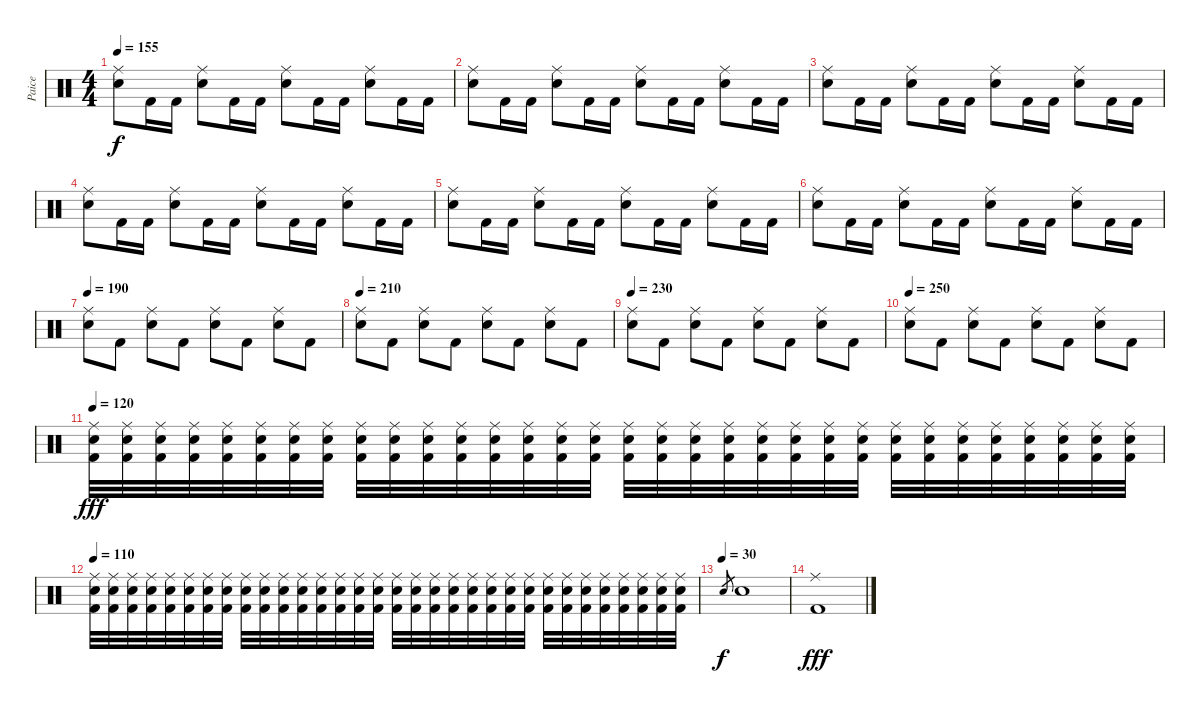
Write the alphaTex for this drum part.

\track ("Paice" "Paice") {instrument percussion}
\staff {score}
\articulation defaults
\ts (4 4)
\tempo 155
\clef neutral
\ks c
("Ride (middle)" "Snare (hit) 2").8{dy f} "Kick (hit) 2".16 "Kick (hit) 2".16 ("Ride (middle)" "Snare (hit) 2").8 "Kick (hit) 2".16 "Kick (hit) 2".16 ("Ride (middle)" "Snare (hit) 2").8 "Kick (hit) 2".16 "Kick (hit) 2".16 ("Ride (middle)" "Snare (hit) 2").8 "Kick (hit) 2".16 "Kick (hit) 2".16 |
("Ride (middle)" "Snare (hit) 2").8 "Kick (hit) 2".16 "Kick (hit) 2".16 ("Ride (middle)" "Snare (hit) 2").8 "Kick (hit) 2".16 "Kick (hit) 2".16 ("Ride (middle)" "Snare (hit) 2").8 "Kick (hit) 2".16 "Kick (hit) 2".16 ("Ride (middle)" "Snare (hit) 2").8 "Kick (hit) 2".16 "Kick (hit) 2".16 |
("Ride (middle)" "Snare (hit) 2").8 "Kick (hit) 2".16 "Kick (hit) 2".16 ("Ride (middle)" "Snare (hit) 2").8 "Kick (hit) 2".16 "Kick (hit) 2".16 ("Ride (middle)" "Snare (hit) 2").8 "Kick (hit) 2".16 "Kick (hit) 2".16 ("Ride (middle)" "Snare (hit) 2").8 "Kick (hit) 2".16 "Kick (hit) 2".16 |
("Ride (middle)" "Snare (hit) 2").8 "Kick (hit) 2".16 "Kick (hit) 2".16 ("Ride (middle)" "Snare (hit) 2").8 "Kick (hit) 2".16 "Kick (hit) 2".16 ("Ride (middle)" "Snare (hit) 2").8 "Kick (hit) 2".16 "Kick (hit) 2".16 ("Ride (middle)" "Snare (hit) 2").8 "Kick (hit) 2".16 "Kick (hit) 2".16 |
("Ride (middle)" "Snare (hit) 2").8 "Kick (hit) 2".16 "Kick (hit) 2".16 ("Ride (middle)" "Snare (hit) 2").8 "Kick (hit) 2".16 "Kick (hit) 2".16 ("Ride (middle)" "Snare (hit) 2").8 "Kick (hit) 2".16 "Kick (hit) 2".16 ("Ride (middle)" "Snare (hit) 2").8 "Kick (hit) 2".16 "Kick (hit) 2".16 |
("Ride (middle)" "Snare (hit) 2").8 "Kick (hit) 2".16 "Kick (hit) 2".16 ("Ride (middle)" "Snare (hit) 2").8 "Kick (hit) 2".16 "Kick (hit) 2".16 ("Ride (middle)" "Snare (hit) 2").8 "Kick (hit) 2".16 "Kick (hit) 2".16 ("Ride (middle)" "Snare (hit) 2").8 "Kick (hit) 2".16 "Kick (hit) 2".16 |
\tempo 190
("Ride (middle)" "Snare (hit) 2").8 "Kick (hit) 2".8 ("Ride (middle)" "Snare (hit) 2").8 "Kick (hit) 2".8 ("Ride (middle)" "Snare (hit) 2").8 "Kick (hit) 2".8 ("Ride (middle)" "Snare (hit) 2").8 "Kick (hit) 2".8 |
\tempo 210
("Ride (middle)" "Snare (hit) 2").8 "Kick (hit) 2".8 ("Ride (middle)" "Snare (hit) 2").8 "Kick (hit) 2".8 ("Ride (middle)" "Snare (hit) 2").8 "Kick (hit) 2".8 ("Ride (middle)" "Snare (hit) 2").8 "Kick (hit) 2".8 |
\tempo 230
("Ride (middle)" "Snare (hit) 2").8 "Kick (hit) 2".8 ("Ride (middle)" "Snare (hit) 2").8 "Kick (hit) 2".8 ("Ride (middle)" "Snare (hit) 2").8 "Kick (hit) 2".8 ("Ride (middle)" "Snare (hit) 2").8 "Kick (hit) 2".8 |
\tempo 250
("Ride (middle)" "Snare (hit) 2").8 "Kick (hit) 2".8 ("Ride (middle)" "Snare (hit) 2").8 "Kick (hit) 2".8 ("Ride (middle)" "Snare (hit) 2").8 "Kick (hit) 2".8 ("Ride (middle)" "Snare (hit) 2").8 "Kick (hit) 2".8 |
\tempo 120
("Ride (middle)" "Snare (hit) 2" "Kick (hit) 2").32{dy fff volume 10} ("Ride (middle)" "Snare (hit) 2" "Kick (hit) 2").32 ("Ride (middle)" "Snare (hit) 2" "Kick (hit) 2").32 ("Ride (middle)" "Snare (hit) 2" "Kick (hit) 2").32 ("Ride (middle)" "Snare (hit) 2" "Kick (hit) 2").32 ("Ride (middle)" "Snare (hit) 2" "Kick (hit) 2").32 ("Ride (middle)" "Snare (hit) 2" "Kick (hit) 2").32 ("Ride (middle)" "Snare (hit) 2" "Kick (hit) 2").32 ("Ride (middle)" "Snare (hit) 2" "Kick (hit) 2").32 ("Ride (middle)" "Snare (hit) 2" "Kick (hit) 2").32 ("Ride (middle)" "Snare (hit) 2" "Kick (hit) 2").32 ("Ride (middle)" "Snare (hit) 2" "Kick (hit) 2").32 ("Ride (middle)" "Snare (hit) 2" "Kick (hit) 2").32 ("Ride (middle)" "Snare (hit) 2" "Kick (hit) 2").32 ("Ride (middle)" "Snare (hit) 2" "Kick (hit) 2").32 ("Ride (middle)" "Snare (hit) 2" "Kick (hit) 2").32 ("Ride (middle)" "Snare (hit) 2" "Kick (hit) 2").32 ("Ride (middle)" "Snare (hit) 2" "Kick (hit) 2").32 ("Ride (middle)" "Snare (hit) 2" "Kick (hit) 2").32 ("Ride (middle)" "Snare (hit) 2" "Kick (hit) 2").32 ("Ride (middle)" "Snare (hit) 2" "Kick (hit) 2").32 ("Ride (middle)" "Snare (hit) 2" "Kick (hit) 2").32 ("Ride (middle)" "Snare (hit) 2" "Kick (hit) 2").32 ("Ride (middle)" "Snare (hit) 2" "Kick (hit) 2").32 ("Ride (middle)" "Snare (hit) 2" "Kick (hit) 2").32 ("Ride (middle)" "Snare (hit) 2" "Kick (hit) 2").32 ("Ride (middle)" "Snare (hit) 2" "Kick (hit) 2").32 ("Ride (middle)" "Snare (hit) 2" "Kick (hit) 2").32 ("Ride (middle)" "Snare (hit) 2" "Kick (hit) 2").32 ("Ride (middle)" "Snare (hit) 2" "Kick (hit) 2").32 ("Ride (middle)" "Snare (hit) 2" "Kick (hit) 2").32 ("Ride (middle)" "Snare (hit) 2" "Kick (hit) 2").32 |
\tempo 110
("Ride (middle)" "Snare (hit) 2" "Kick (hit) 2").32 ("Ride (middle)" "Snare (hit) 2" "Kick (hit) 2").32 ("Ride (middle)" "Snare (hit) 2" "Kick (hit) 2").32 ("Ride (middle)" "Snare (hit) 2" "Kick (hit) 2").32 ("Ride (middle)" "Snare (hit) 2" "Kick (hit) 2").32 ("Ride (middle)" "Snare (hit) 2" "Kick (hit) 2").32 ("Ride (middle)" "Snare (hit) 2" "Kick (hit) 2").32 ("Ride (middle)" "Snare (hit) 2" "Kick (hit) 2").32 ("Ride (middle)" "Snare (hit) 2" "Kick (hit) 2").32 ("Ride (middle)" "Snare (hit) 2" "Kick (hit) 2").32 ("Ride (middle)" "Snare (hit) 2" "Kick (hit) 2").32 ("Ride (middle)" "Snare (hit) 2" "Kick (hit) 2").32 ("Ride (middle)" "Snare (hit) 2" "Kick (hit) 2").32 ("Ride (middle)" "Snare (hit) 2" "Kick (hit) 2").32 ("Ride (middle)" "Snare (hit) 2" "Kick (hit) 2").32 ("Ride (middle)" "Snare (hit) 2" "Kick (hit) 2").32 ("Ride (middle)" "Snare (hit) 2" "Kick (hit) 2").32 ("Ride (middle)" "Snare (hit) 2" "Kick (hit) 2").32 ("Ride (middle)" "Snare (hit) 2" "Kick (hit) 2").32 ("Ride (middle)" "Snare (hit) 2" "Kick (hit) 2").32 ("Ride (middle)" "Snare (hit) 2" "Kick (hit) 2").32 ("Ride (middle)" "Snare (hit) 2" "Kick (hit) 2").32 ("Ride (middle)" "Snare (hit) 2" "Kick (hit) 2").32 ("Ride (middle)" "Snare (hit) 2" "Kick (hit) 2").32 ("Ride (middle)" "Snare (hit) 2" "Kick (hit) 2").32 ("Ride (middle)" "Snare (hit) 2" "Kick (hit) 2").32 ("Ride (middle)" "Snare (hit) 2" "Kick (hit) 2").32 ("Ride (middle)" "Snare (hit) 2" "Kick (hit) 2").32 ("Ride (middle)" "Snare (hit) 2" "Kick (hit) 2").32 ("Ride (middle)" "Snare (hit) 2" "Kick (hit) 2").32 ("Ride (middle)" "Snare (hit) 2" "Kick (hit) 2").32 ("Ride (middle)" "Snare (hit) 2" "Kick (hit) 2").32 |
\tempo (30)
"Snare (hit) 2".8{gr dy f} "Snare (hit) 2".1 |
("Ride (middle)" "Kick (hit) 2").1{dy fff}
